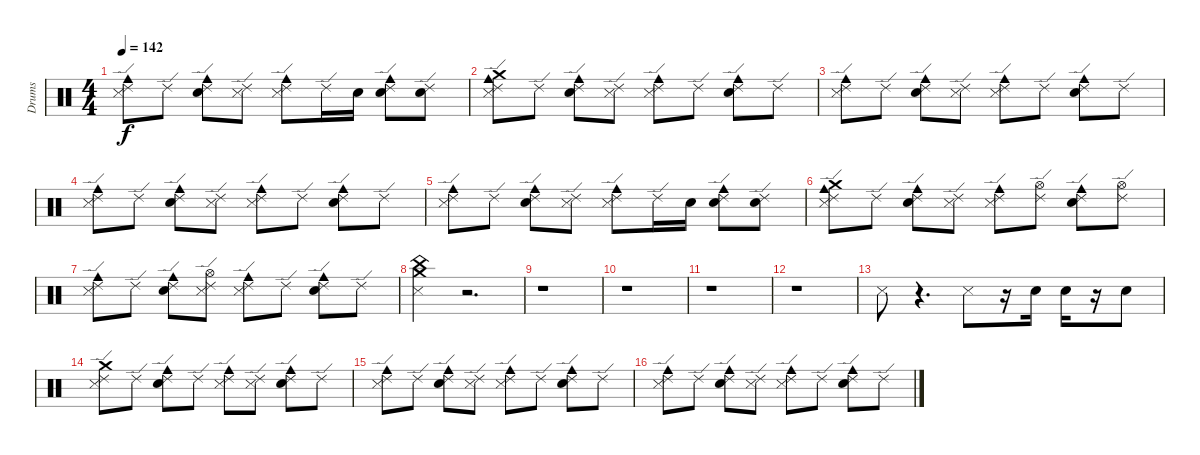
\track ("Drums" "Drums") {instrument percussion}
\staff {score}
\articulation defaults
\ts (4 4)
\tempo 142
\clef neutral
\ks c
("Metronome (hit)" "Cowbell medium (hit)" "Ride (edge) 2").8{dy f} "Ride (edge) 2".8 ("Cowbell medium (hit)" "Ride (edge) 2" "Snare (hit) 2").8 ("Ride (edge) 2" "Metronome (hit)").8 ("Cowbell medium (hit)" "Ride (edge) 2" "Metronome (hit)").8 "Ride (edge) 2".16 "Snare (hit) 2".16 ("Snare (hit) 2" "Cowbell medium (hit)" "Ride (edge) 2").8 ("Snare (hit) 2" "Ride (edge) 2").8 |
("Crash medium (hit)" "Metronome (hit)" "Cowbell medium (hit)" "Ride (edge) 2").8 "Ride (edge) 2".8 ("Cowbell medium (hit)" "Ride (edge) 2" "Snare (hit) 2").8 ("Ride (edge) 2" "Metronome (hit)").8 ("Cowbell medium (hit)" "Ride (edge) 2" "Metronome (hit)").8 "Ride (edge) 2".8 ("Cowbell medium (hit)" "Ride (edge) 2" "Snare (hit) 2").8 "Ride (edge) 2".8 |
("Metronome (hit)" "Cowbell medium (hit)" "Ride (edge) 2").8 "Ride (edge) 2".8 ("Cowbell medium (hit)" "Ride (edge) 2" "Snare (hit) 2").8 ("Ride (edge) 2" "Metronome (hit)").8 ("Cowbell medium (hit)" "Ride (edge) 2" "Metronome (hit)").8 "Ride (edge) 2".8 ("Cowbell medium (hit)" "Ride (edge) 2" "Snare (hit) 2").8 "Ride (edge) 2".8 |
("Metronome (hit)" "Cowbell medium (hit)" "Ride (edge) 2").8 "Ride (edge) 2".8 ("Cowbell medium (hit)" "Ride (edge) 2" "Snare (hit) 2").8 ("Ride (edge) 2" "Metronome (hit)").8 ("Cowbell medium (hit)" "Ride (edge) 2" "Metronome (hit)").8 "Ride (edge) 2".8 ("Cowbell medium (hit)" "Ride (edge) 2" "Snare (hit) 2").8 "Ride (edge) 2".8 |
("Metronome (hit)" "Cowbell medium (hit)" "Ride (edge) 2").8 "Ride (edge) 2".8 ("Cowbell medium (hit)" "Ride (edge) 2" "Snare (hit) 2").8 ("Ride (edge) 2" "Metronome (hit)").8 ("Cowbell medium (hit)" "Ride (edge) 2" "Metronome (hit)").8 "Ride (edge) 2".16 "Snare (hit) 2".16 ("Snare (hit) 2" "Cowbell medium (hit)" "Ride (edge) 2").8 ("Snare (hit) 2" "Ride (edge) 2").8 |
("Crash medium (hit)" "Metronome (hit)" "Cowbell medium (hit)" "Ride (edge) 2").8 "Ride (edge) 2".8 ("Cowbell medium (hit)" "Ride (edge) 2" "Snare (hit) 2").8 ("Ride (edge) 2" "Metronome (hit)").8 ("Cowbell medium (hit)" "Ride (edge) 2" "Metronome (hit)").8 ("Hi-Hat (open)" "Ride (edge) 2").8 ("Cowbell medium (hit)" "Ride (edge) 2" "Snare (hit) 2").8 ("Hi-Hat (open)" "Ride (edge) 2").8 |
("Metronome (hit)" "Cowbell medium (hit)" "Ride (edge) 2").8 "Ride (edge) 2".8 ("Cowbell medium (hit)" "Ride (edge) 2" "Snare (hit) 2").8 ("Hi-Hat (open)" "Ride (edge) 2" "Metronome (hit)").8 ("Cowbell medium (hit)" "Ride (edge) 2" "Metronome (hit)").8 "Ride (edge) 2".8 ("Cowbell medium (hit)" "Ride (edge) 2" "Snare (hit) 2").8 "Ride (edge) 2".8 |
("Metronome (hit)" "China (hit)" "Crash medium (hit)").4 r.2{d} |
r.1 |
r.1 |
r.1 |
r.1 |
"Metronome (hit)".8 r.4{d} "Metronome (hit)".8 r.16 "Snare (hit) 2".16 "Snare (hit) 2".16 r.16 "Snare (hit) 2".8 |
("Metronome (hit)" "Crash medium (hit)" "Ride (edge) 2").8 "Ride (edge) 2".8 ("Cowbell medium (hit)" "Ride (edge) 2" "Snare (hit) 2").8 "Ride (edge) 2".8 ("Cowbell medium (hit)" "Ride (edge) 2" "Metronome (hit)").8 ("Metronome (hit)" "Ride (edge) 2").8 ("Cowbell medium (hit)" "Ride (edge) 2" "Snare (hit) 2").8 "Ride (edge) 2".8 |
("Metronome (hit)" "Cowbell medium (hit)" "Ride (edge) 2").8 "Ride (edge) 2".8 ("Cowbell medium (hit)" "Ride (edge) 2" "Snare (hit) 2").8 ("Ride (edge) 2" "Metronome (hit)").8 ("Cowbell medium (hit)" "Ride (edge) 2" "Metronome (hit)").8 "Ride (edge) 2".8 ("Cowbell medium (hit)" "Ride (edge) 2" "Snare (hit) 2").8 "Ride (edge) 2".8 |
("Metronome (hit)" "Cowbell medium (hit)" "Ride (edge) 2").8 "Ride (edge) 2".8 ("Cowbell medium (hit)" "Ride (edge) 2" "Snare (hit) 2").8 ("Ride (edge) 2" "Metronome (hit)").8 ("Cowbell medium (hit)" "Ride (edge) 2" "Metronome (hit)").8 "Ride (edge) 2".8 ("Cowbell medium (hit)" "Ride (edge) 2" "Snare (hit) 2").8 "Ride (edge) 2".8
